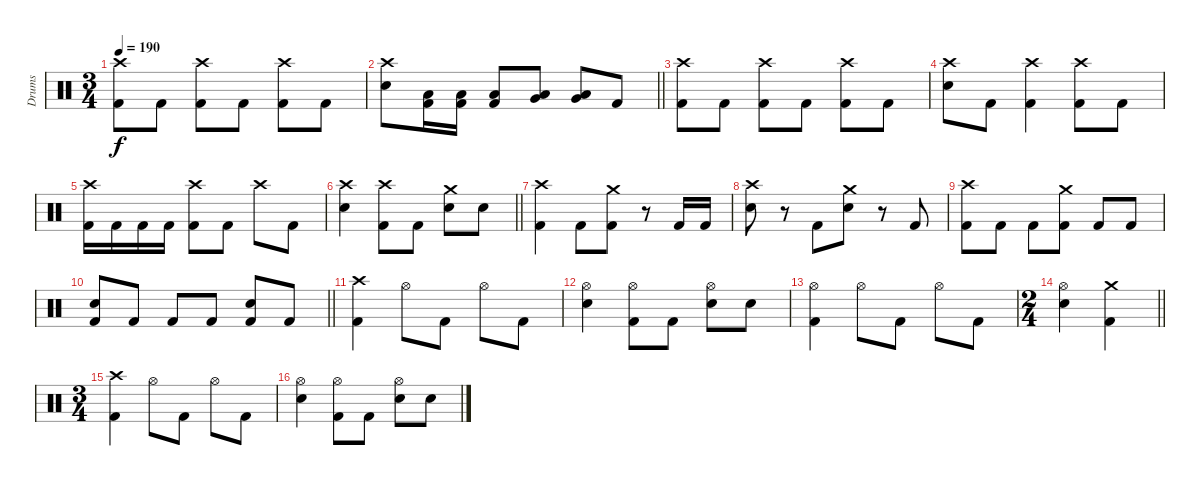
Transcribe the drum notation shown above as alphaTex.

\track ("Drums" "Drums") {instrument percussion}
\staff {score}
\articulation defaults
\ts (3 4)
\tempo 190
\clef neutral
\ks c
("Crash high (hit)" "Kick (hit) 2").8{dy f} "Kick (hit) 2".8 ("Crash high (hit)" "Kick (hit) 2").8 "Kick (hit) 2".8 ("Crash high (hit)" "Kick (hit) 2").8 "Kick (hit) 2".8 |
\barLineRight lightlight
("Crash high (hit)" "Electric Snare (hit)").8 ("Low Tom (hit)" "Kick (hit) 2").16 ("Low Tom (hit)" "Kick (hit) 2").16 ("Low Tom (hit)" "Kick (hit) 2").8 ("Low Tom (hit)" "Very Low Tom (hit)").8 ("Low Tom (hit)" "Very Low Tom (hit)").8 "Kick (hit) 2".8 |
("Crash high (hit)" "Kick (hit) 2").8 "Kick (hit) 2".8 ("Crash high (hit)" "Kick (hit) 2").8 "Kick (hit) 2".8 ("Crash high (hit)" "Kick (hit) 2").8 "Kick (hit) 2".8 |
("Crash high (hit)" "Electric Snare (hit)").8 "Kick (hit) 2".8 ("Crash high (hit)" "Kick (hit) 2").4 ("Crash high (hit)" "Kick (hit) 2").8 "Kick (hit) 2".8 |
("Crash high (hit)" "Kick (hit) 2").16 "Kick (hit) 2".16 "Kick (hit) 2".16 "Kick (hit) 2".16 ("Crash high (hit)" "Kick (hit) 2").8 "Kick (hit) 2".8 "Crash high (hit)".8 "Kick (hit) 2".8 |
\barLineRight lightlight
("Crash high (hit)" "Electric Snare (hit)").4 ("Crash high (hit)" "Kick (hit) 2").8 "Kick (hit) 2".8 ("Crash medium (hit)" "Electric Snare (hit)").8 "Electric Snare (hit)".8 |
("Crash high (hit)" "Kick (hit) 2").4 "Kick (hit) 2".8 ("Crash medium (hit)" "Kick (hit) 2").8 r.8 "Kick (hit) 2".16 "Kick (hit) 2".16 |
("Crash high (hit)" "Electric Snare (hit)").8 r.8 "Kick (hit) 2".8 ("Crash medium (hit)" "Electric Snare (hit)").8 r.8 "Kick (hit) 2".8 |
("Crash high (hit)" "Kick (hit) 2").8 "Kick (hit) 2".8 "Kick (hit) 2".8 ("Crash medium (hit)" "Kick (hit) 2").8 "Kick (hit) 2".8 "Kick (hit) 2".8 |
\barLineRight lightlight
("Electric Snare (hit)" "Kick (hit) 2").8 "Kick (hit) 2".8 "Kick (hit) 2".8 "Kick (hit) 2".8 ("Electric Snare (hit)" "Kick (hit) 2").8 "Kick (hit) 2".8 |
("Crash high (hit)" "Kick (hit) 2").4 "Hi-Hat (open)".8 "Kick (hit) 2".8 "Hi-Hat (open)".8 "Kick (hit) 2".8 |
("Hi-Hat (open)" "Electric Snare (hit)").4 ("Hi-Hat (open)" "Kick (hit) 2").8 "Kick (hit) 2".8 ("Hi-Hat (open)" "Electric Snare (hit)").8 "Electric Snare (hit)".8 |
("Hi-Hat (open)" "Kick (hit) 2").4 "Hi-Hat (open)".8 "Kick (hit) 2".8 "Hi-Hat (open)".8 "Kick (hit) 2".8 |
\ts (2 4)
\barLineRight lightlight
("Hi-Hat (open)" "Electric Snare (hit)").4 ("Crash medium (hit)" "Kick (hit) 2").4 |
\ts (3 4)
("Crash high (hit)" "Kick (hit) 2").4 "Hi-Hat (open)".8 "Kick (hit) 2".8 "Hi-Hat (open)".8 "Kick (hit) 2".8 |
("Hi-Hat (open)" "Electric Snare (hit)").4 ("Hi-Hat (open)" "Kick (hit) 2").8 "Kick (hit) 2".8 ("Hi-Hat (open)" "Electric Snare (hit)").8 "Electric Snare (hit)".8
